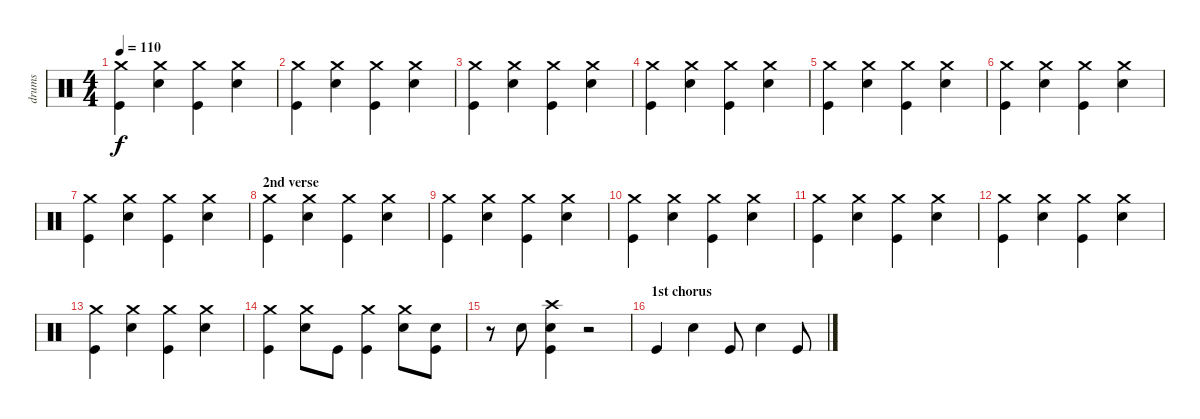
\track ("drums" "drums") {instrument percussion}
\staff {score}
\articulation defaults
\ts (4 4)
\tempo 110
\clef neutral
\ks c
("Crash medium (hit)" "Kick (hit)").4{dy f} ("Crash medium (hit)" "Snare (hit) 2").4 ("Crash medium (hit)" "Kick (hit)").4 ("Crash medium (hit)" "Snare (hit) 2").4 |
("Crash medium (hit)" "Kick (hit)").4 ("Crash medium (hit)" "Snare (hit) 2").4 ("Crash medium (hit)" "Kick (hit)").4 ("Crash medium (hit)" "Snare (hit) 2").4 |
("Crash medium (hit)" "Kick (hit)").4 ("Crash medium (hit)" "Snare (hit) 2").4 ("Crash medium (hit)" "Kick (hit)").4 ("Crash medium (hit)" "Snare (hit) 2").4 |
("Crash medium (hit)" "Kick (hit)").4 ("Crash medium (hit)" "Snare (hit) 2").4 ("Crash medium (hit)" "Kick (hit)").4 ("Crash medium (hit)" "Snare (hit) 2").4 |
("Crash medium (hit)" "Kick (hit)").4 ("Crash medium (hit)" "Snare (hit) 2").4 ("Crash medium (hit)" "Kick (hit)").4 ("Crash medium (hit)" "Snare (hit) 2").4 |
("Crash medium (hit)" "Kick (hit)").4 ("Crash medium (hit)" "Snare (hit) 2").4 ("Crash medium (hit)" "Kick (hit)").4 ("Crash medium (hit)" "Snare (hit) 2").4 |
("Crash medium (hit)" "Kick (hit)").4 ("Crash medium (hit)" "Snare (hit) 2").4 ("Crash medium (hit)" "Kick (hit)").4 ("Crash medium (hit)" "Snare (hit) 2").4 |
\section ("" "2nd verse")
("Crash medium (hit)" "Kick (hit)").4 ("Crash medium (hit)" "Snare (hit) 2").4 ("Crash medium (hit)" "Kick (hit)").4 ("Crash medium (hit)" "Snare (hit) 2").4 |
("Crash medium (hit)" "Kick (hit)").4 ("Crash medium (hit)" "Snare (hit) 2").4 ("Crash medium (hit)" "Kick (hit)").4 ("Crash medium (hit)" "Snare (hit) 2").4 |
("Crash medium (hit)" "Kick (hit)").4 ("Crash medium (hit)" "Snare (hit) 2").4 ("Crash medium (hit)" "Kick (hit)").4 ("Crash medium (hit)" "Snare (hit) 2").4 |
("Crash medium (hit)" "Kick (hit)").4 ("Crash medium (hit)" "Snare (hit) 2").4 ("Crash medium (hit)" "Kick (hit)").4 ("Crash medium (hit)" "Snare (hit) 2").4 |
("Crash medium (hit)" "Kick (hit)").4 ("Crash medium (hit)" "Snare (hit) 2").4 ("Crash medium (hit)" "Kick (hit)").4 ("Crash medium (hit)" "Snare (hit) 2").4 |
("Crash medium (hit)" "Kick (hit)").4 ("Crash medium (hit)" "Snare (hit) 2").4 ("Crash medium (hit)" "Kick (hit)").4 ("Crash medium (hit)" "Snare (hit) 2").4 |
("Crash medium (hit)" "Kick (hit)").4 ("Crash medium (hit)" "Snare (hit) 2").8 "Kick (hit)".8 ("Crash medium (hit)" "Kick (hit)").4 ("Crash medium (hit)" "Snare (hit) 2").8 ("Snare (hit) 2" "Kick (hit)").8 |
r.8 "Snare (hit) 2".8 ("Crash high (hit)" "Snare (hit) 2" "Kick (hit)").4 r.2 |
\section ("" "1st chorus")
"Kick (hit)".4 "Snare (hit) 2".4 "Kick (hit)".8 "Snare (hit) 2".4 "Kick (hit)".8
